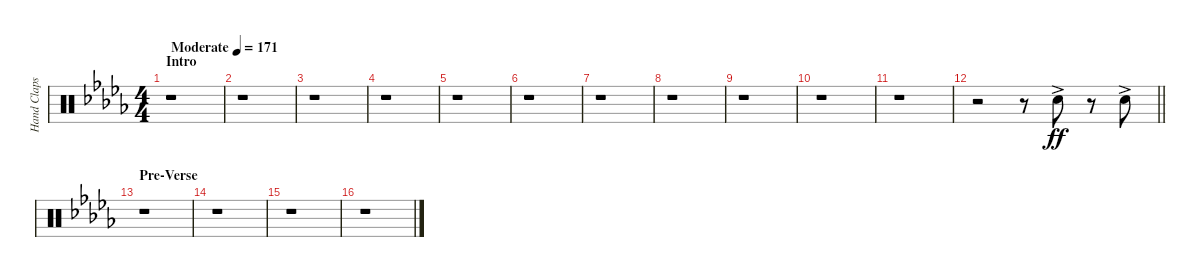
\track ("Hand Claps" "Hand Claps") {instrument percussion}
\staff {score}
\articulation defaults
\ts (4 4)
\section ("" "Intro")
\tempo (171 "Moderate")
\clef neutral
\ks db
r.1{dy ff} |
r.1 |
r.1 |
r.1 |
r.1 |
r.1 |
r.1 |
r.1 |
r.1 |
r.1 |
r.1 |
\barLineRight lightlight
r.2 r.8 "Hand Clap (hit)"{ac}.8 r.8 "Hand Clap (hit)"{ac}.8 |
\section ("" "Pre-Verse")
r.1 |
r.1 |
r.1 |
r.1
